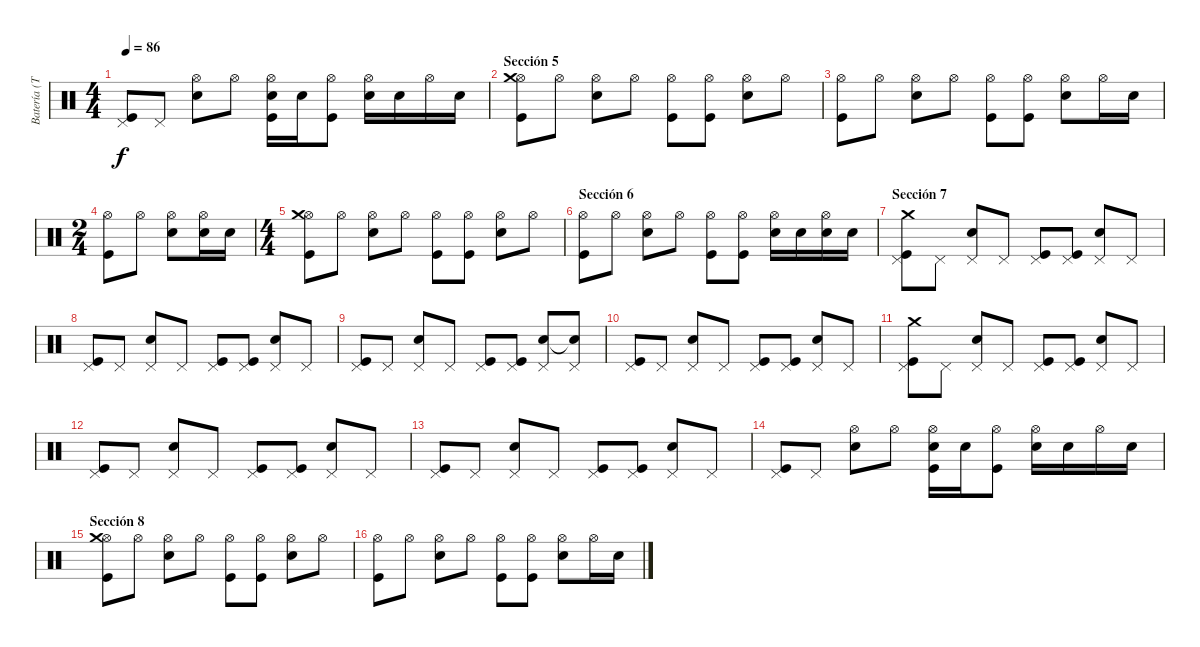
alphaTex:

\track ("Batería (Toño)" "Batería (T") {instrument percussion}
\staff {score}
\articulation defaults
\ts (4 4)
\tempo 86
\clef neutral
\ks c
("Pedal Hi-Hat (hit)" "Kick (hit)").8{dy f} "Pedal Hi-Hat (hit)".8 ("Hi-Hat (open)" "Electric Snare (hit)").8 "Hi-Hat (open)".8 ("Hi-Hat (open)" "Electric Snare (hit)" "Kick (hit)").16 "Electric Snare (hit)".16 ("Hi-Hat (open)" "Kick (hit)").8 ("Hi-Hat (open)" "Electric Snare (hit)").16 "Electric Snare (hit)".16 "Hi-Hat (open)".16 "Electric Snare (hit)".16 |
\section ("" "Sección 5")
("Hi-Hat (open)" "Crash medium (hit)" "Kick (hit)").8 "Hi-Hat (open)".8 ("Hi-Hat (open)" "Electric Snare (hit)").8 "Hi-Hat (open)".8 ("Hi-Hat (open)" "Kick (hit)").8 ("Hi-Hat (open)" "Kick (hit)").8 ("Hi-Hat (open)" "Electric Snare (hit)").8 "Hi-Hat (open)".8 |
("Hi-Hat (open)" "Kick (hit)").8 "Hi-Hat (open)".8 ("Hi-Hat (open)" "Electric Snare (hit)").8 "Hi-Hat (open)".8 ("Hi-Hat (open)" "Kick (hit)").8 ("Hi-Hat (open)" "Kick (hit)").8 ("Hi-Hat (open)" "Electric Snare (hit)").8 "Hi-Hat (open)".16 "Electric Snare (hit)".16 |
\ts (2 4)
("Hi-Hat (open)" "Kick (hit)").8 "Hi-Hat (open)".8 ("Hi-Hat (open)" "Electric Snare (hit)").8 ("Hi-Hat (open)" "Electric Snare (hit)").16 "Electric Snare (hit)".16 |
\ts (4 4)
("Hi-Hat (open)" "Crash medium (hit)" "Kick (hit)").8 "Hi-Hat (open)".8 ("Hi-Hat (open)" "Electric Snare (hit)").8 "Hi-Hat (open)".8 ("Hi-Hat (open)" "Kick (hit)").8 ("Hi-Hat (open)" "Kick (hit)").8 ("Hi-Hat (open)" "Electric Snare (hit)").8 "Hi-Hat (open)".8 |
\section ("" "Sección 6")
("Hi-Hat (open)" "Kick (hit)").8 "Hi-Hat (open)".8 ("Hi-Hat (open)" "Electric Snare (hit)").8 "Hi-Hat (open)".8 ("Hi-Hat (open)" "Kick (hit)").8 ("Hi-Hat (open)" "Kick (hit)").8 ("Hi-Hat (open)" "Electric Snare (hit)").16 "Electric Snare (hit)".16 ("Hi-Hat (open)" "Electric Snare (hit)").16 "Electric Snare (hit)".16 |
\section ("" "Sección 7")
("Pedal Hi-Hat (hit)" "Crash medium (hit)" "Kick (hit)").8 "Pedal Hi-Hat (hit)".8 ("Pedal Hi-Hat (hit)" "Electric Snare (hit)").8 "Pedal Hi-Hat (hit)".8 ("Pedal Hi-Hat (hit)" "Kick (hit)").8 ("Pedal Hi-Hat (hit)" "Kick (hit)").8 ("Pedal Hi-Hat (hit)" "Electric Snare (hit)").8 "Pedal Hi-Hat (hit)".8 |
("Pedal Hi-Hat (hit)" "Kick (hit)").8 "Pedal Hi-Hat (hit)".8 ("Pedal Hi-Hat (hit)" "Electric Snare (hit)").8 "Pedal Hi-Hat (hit)".8 ("Pedal Hi-Hat (hit)" "Kick (hit)").8 ("Pedal Hi-Hat (hit)" "Kick (hit)").8 ("Pedal Hi-Hat (hit)" "Electric Snare (hit)").8 "Pedal Hi-Hat (hit)".8 |
("Pedal Hi-Hat (hit)" "Kick (hit)").8 "Pedal Hi-Hat (hit)".8 ("Pedal Hi-Hat (hit)" "Electric Snare (hit)").8 "Pedal Hi-Hat (hit)".8 ("Pedal Hi-Hat (hit)" "Kick (hit)").8 ("Pedal Hi-Hat (hit)" "Kick (hit)").8 ("Pedal Hi-Hat (hit)" "Electric Snare (hit)").8 ("Pedal Hi-Hat (hit)" "Snare (hit)"{t}).8 |
("Pedal Hi-Hat (hit)" "Kick (hit)").8 "Pedal Hi-Hat (hit)".8 ("Pedal Hi-Hat (hit)" "Electric Snare (hit)").8 "Pedal Hi-Hat (hit)".8 ("Pedal Hi-Hat (hit)" "Kick (hit)").8 ("Pedal Hi-Hat (hit)" "Kick (hit)").8 ("Pedal Hi-Hat (hit)" "Electric Snare (hit)").8 "Pedal Hi-Hat (hit)".8 |
("Pedal Hi-Hat (hit)" "Crash medium (hit)" "Kick (hit)").8 "Pedal Hi-Hat (hit)".8 ("Pedal Hi-Hat (hit)" "Electric Snare (hit)").8 "Pedal Hi-Hat (hit)".8 ("Pedal Hi-Hat (hit)" "Kick (hit)").8 ("Pedal Hi-Hat (hit)" "Kick (hit)").8 ("Pedal Hi-Hat (hit)" "Electric Snare (hit)").8 "Pedal Hi-Hat (hit)".8 |
("Pedal Hi-Hat (hit)" "Kick (hit)").8 "Pedal Hi-Hat (hit)".8 ("Pedal Hi-Hat (hit)" "Electric Snare (hit)").8 "Pedal Hi-Hat (hit)".8 ("Pedal Hi-Hat (hit)" "Kick (hit)").8 ("Pedal Hi-Hat (hit)" "Kick (hit)").8 ("Pedal Hi-Hat (hit)" "Electric Snare (hit)").8 "Pedal Hi-Hat (hit)".8 |
("Pedal Hi-Hat (hit)" "Kick (hit)").8 "Pedal Hi-Hat (hit)".8 ("Pedal Hi-Hat (hit)" "Electric Snare (hit)").8 "Pedal Hi-Hat (hit)".8 ("Pedal Hi-Hat (hit)" "Kick (hit)").8 ("Pedal Hi-Hat (hit)" "Kick (hit)").8 ("Pedal Hi-Hat (hit)" "Electric Snare (hit)").8 "Pedal Hi-Hat (hit)".8 |
("Pedal Hi-Hat (hit)" "Kick (hit)").8 "Pedal Hi-Hat (hit)".8 ("Hi-Hat (open)" "Electric Snare (hit)").8 "Hi-Hat (open)".8 ("Hi-Hat (open)" "Electric Snare (hit)" "Kick (hit)").16 "Electric Snare (hit)".16 ("Hi-Hat (open)" "Kick (hit)").8 ("Hi-Hat (open)" "Electric Snare (hit)").16 "Electric Snare (hit)".16 "Hi-Hat (open)".16 "Electric Snare (hit)".16 |
\section ("" "Sección 8")
("Hi-Hat (open)" "Crash medium (hit)" "Kick (hit)").8 "Hi-Hat (open)".8 ("Hi-Hat (open)" "Electric Snare (hit)").8 "Hi-Hat (open)".8 ("Hi-Hat (open)" "Kick (hit)").8 ("Hi-Hat (open)" "Kick (hit)").8 ("Hi-Hat (open)" "Electric Snare (hit)").8 "Hi-Hat (open)".8 |
("Hi-Hat (open)" "Kick (hit)").8 "Hi-Hat (open)".8 ("Hi-Hat (open)" "Electric Snare (hit)").8 "Hi-Hat (open)".8 ("Hi-Hat (open)" "Kick (hit)").8 ("Hi-Hat (open)" "Kick (hit)").8 ("Hi-Hat (open)" "Electric Snare (hit)").8 "Hi-Hat (open)".16 "Electric Snare (hit)".16
